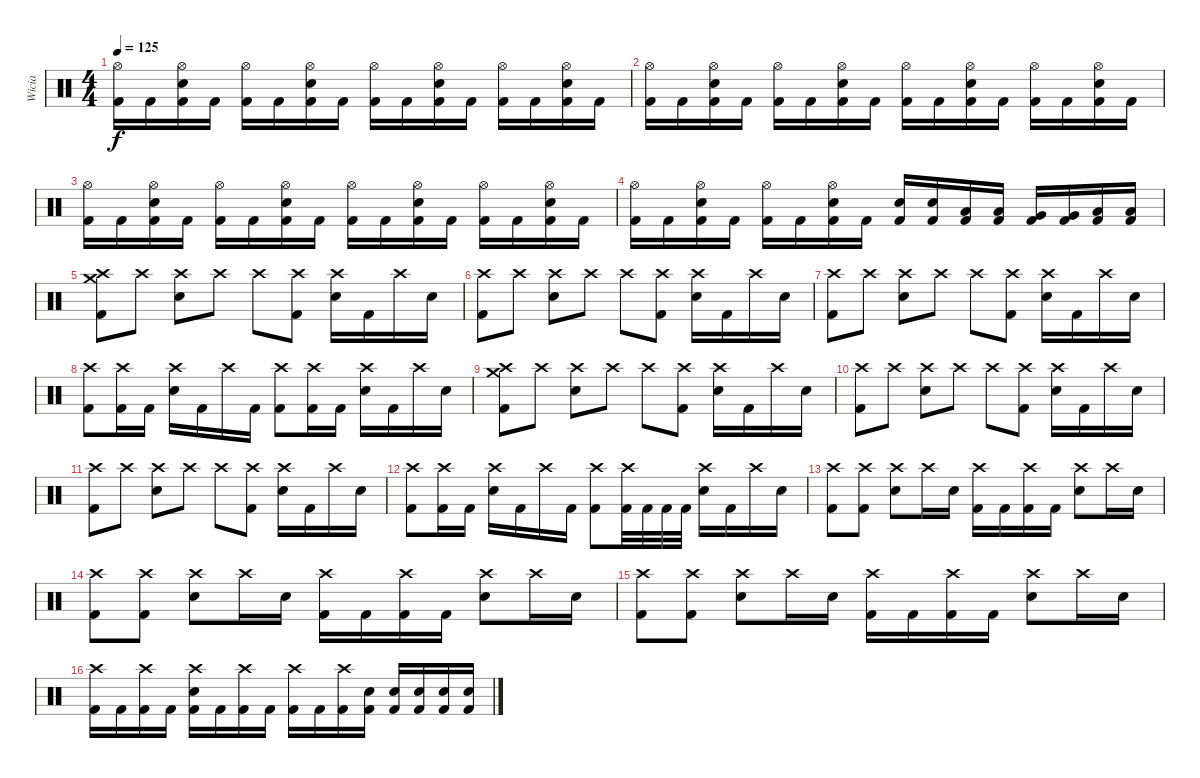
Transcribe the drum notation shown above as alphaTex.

\track ("Wicia" "Wicia") {instrument percussion}
\staff {score}
\articulation defaults
\ts (4 4)
\tempo 125
\clef neutral
\ks c
("Hi-Hat (open)" "Kick (hit) 2").16{dy f} "Kick (hit) 2".16 ("Hi-Hat (open)" "Electric Snare (hit)" "Kick (hit) 2").16 "Kick (hit) 2".16 ("Hi-Hat (open)" "Kick (hit) 2").16 "Kick (hit) 2".16 ("Hi-Hat (open)" "Electric Snare (hit)" "Kick (hit) 2").16 "Kick (hit) 2".16 ("Hi-Hat (open)" "Kick (hit) 2").16 "Kick (hit) 2".16 ("Hi-Hat (open)" "Electric Snare (hit)" "Kick (hit) 2").16 "Kick (hit) 2".16 ("Hi-Hat (open)" "Kick (hit) 2").16 "Kick (hit) 2".16 ("Hi-Hat (open)" "Electric Snare (hit)" "Kick (hit) 2").16 "Kick (hit) 2".16 |
("Hi-Hat (open)" "Kick (hit) 2").16 "Kick (hit) 2".16 ("Hi-Hat (open)" "Electric Snare (hit)" "Kick (hit) 2").16 "Kick (hit) 2".16 ("Hi-Hat (open)" "Kick (hit) 2").16 "Kick (hit) 2".16 ("Hi-Hat (open)" "Electric Snare (hit)" "Kick (hit) 2").16 "Kick (hit) 2".16 ("Hi-Hat (open)" "Kick (hit) 2").16 "Kick (hit) 2".16 ("Hi-Hat (open)" "Electric Snare (hit)" "Kick (hit) 2").16 "Kick (hit) 2".16 ("Hi-Hat (open)" "Kick (hit) 2").16 "Kick (hit) 2".16 ("Hi-Hat (open)" "Electric Snare (hit)" "Kick (hit) 2").16 "Kick (hit) 2".16 |
("Hi-Hat (open)" "Kick (hit) 2").16 "Kick (hit) 2".16 ("Hi-Hat (open)" "Electric Snare (hit)" "Kick (hit) 2").16 "Kick (hit) 2".16 ("Hi-Hat (open)" "Kick (hit) 2").16 "Kick (hit) 2".16 ("Hi-Hat (open)" "Electric Snare (hit)" "Kick (hit) 2").16 "Kick (hit) 2".16 ("Hi-Hat (open)" "Kick (hit) 2").16 "Kick (hit) 2".16 ("Hi-Hat (open)" "Electric Snare (hit)" "Kick (hit) 2").16 "Kick (hit) 2".16 ("Hi-Hat (open)" "Kick (hit) 2").16 "Kick (hit) 2".16 ("Hi-Hat (open)" "Electric Snare (hit)" "Kick (hit) 2").16 "Kick (hit) 2".16 |
("Hi-Hat (open)" "Kick (hit) 2").16 "Kick (hit) 2".16 ("Hi-Hat (open)" "Electric Snare (hit)" "Kick (hit) 2").16 "Kick (hit) 2".16 ("Hi-Hat (open)" "Kick (hit) 2").16 "Kick (hit) 2".16 ("Hi-Hat (open)" "Electric Snare (hit)" "Kick (hit) 2").16 "Kick (hit) 2".16 ("Electric Snare (hit)" "Kick (hit) 2").16 ("Electric Snare (hit)" "Kick (hit) 2").16 ("Low Tom (hit)" "Kick (hit) 2").16 ("Low Tom (hit)" "Kick (hit) 2").16 ("Very Low Tom (hit)" "Kick (hit) 2").16 ("Very Low Tom (hit)" "Kick (hit) 2").16 ("Low Floor Tom (hit)" "Kick (hit) 2").16 ("Low Floor Tom (hit)" "Kick (hit) 2").16 |
("Crash high (hit)" "Crash medium (hit)" "Kick (hit) 2").8 "Crash high (hit)".8 ("Crash high (hit)" "Electric Snare (hit)").8 "Crash high (hit)".8 "Crash high (hit)".8 ("Crash high (hit)" "Kick (hit) 2").8 ("Crash high (hit)" "Electric Snare (hit)").16 "Kick (hit) 2".16 "Crash high (hit)".16 "Electric Snare (hit)".16 |
("Crash high (hit)" "Kick (hit) 2").8 "Crash high (hit)".8 ("Crash high (hit)" "Electric Snare (hit)").8 "Crash high (hit)".8 "Crash high (hit)".8 ("Crash high (hit)" "Kick (hit) 2").8 ("Crash high (hit)" "Electric Snare (hit)").16 "Kick (hit) 2".16 "Crash high (hit)".16 "Electric Snare (hit)".16 |
("Crash high (hit)" "Kick (hit) 2").8 "Crash high (hit)".8 ("Crash high (hit)" "Electric Snare (hit)").8 "Crash high (hit)".8 "Crash high (hit)".8 ("Crash high (hit)" "Kick (hit) 2").8 ("Crash high (hit)" "Electric Snare (hit)").16 "Kick (hit) 2".16 "Crash high (hit)".16 "Electric Snare (hit)".16 |
("Crash high (hit)" "Kick (hit) 2").8 ("Crash high (hit)" "Kick (hit) 2").16 "Kick (hit) 2".16 ("Crash high (hit)" "Electric Snare (hit)").16 "Kick (hit) 2".16 "Crash high (hit)".16 "Kick (hit) 2".16 ("Crash high (hit)" "Kick (hit) 2").8 ("Crash high (hit)" "Kick (hit) 2").16 "Kick (hit) 2".16 ("Crash high (hit)" "Electric Snare (hit)").16 "Kick (hit) 2".16 "Crash high (hit)".16 "Electric Snare (hit)".16 |
("Crash high (hit)" "Crash medium (hit)" "Kick (hit) 2").8 "Crash high (hit)".8 ("Crash high (hit)" "Electric Snare (hit)").8 "Crash high (hit)".8 "Crash high (hit)".8 ("Crash high (hit)" "Kick (hit) 2").8 ("Crash high (hit)" "Electric Snare (hit)").16 "Kick (hit) 2".16 "Crash high (hit)".16 "Electric Snare (hit)".16 |
("Crash high (hit)" "Kick (hit) 2").8 "Crash high (hit)".8 ("Crash high (hit)" "Electric Snare (hit)").8 "Crash high (hit)".8 "Crash high (hit)".8 ("Crash high (hit)" "Kick (hit) 2").8 ("Crash high (hit)" "Electric Snare (hit)").16 "Kick (hit) 2".16 "Crash high (hit)".16 "Electric Snare (hit)".16 |
("Crash high (hit)" "Kick (hit) 2").8 "Crash high (hit)".8 ("Crash high (hit)" "Electric Snare (hit)").8 "Crash high (hit)".8 "Crash high (hit)".8 ("Crash high (hit)" "Kick (hit) 2").8 ("Crash high (hit)" "Electric Snare (hit)").16 "Kick (hit) 2".16 "Crash high (hit)".16 "Electric Snare (hit)".16 |
("Crash high (hit)" "Kick (hit) 2").8 ("Crash high (hit)" "Kick (hit) 2").16 "Kick (hit) 2".16 ("Crash high (hit)" "Electric Snare (hit)").16 "Kick (hit) 2".16 "Crash high (hit)".16 "Kick (hit) 2".16 ("Crash high (hit)" "Kick (hit) 2").8 ("Crash high (hit)" "Kick (hit) 2").32 "Kick (hit) 2".32 "Kick (hit) 2".32 "Kick (hit) 2".32 ("Crash high (hit)" "Electric Snare (hit)").16 "Kick (hit) 2".16 "Crash high (hit)".16 "Electric Snare (hit)".16 |
("Crash high (hit)" "Kick (hit) 2").8 ("Crash high (hit)" "Kick (hit) 2").8 ("Crash high (hit)" "Electric Snare (hit)").8 "Crash high (hit)".16 "Electric Snare (hit)".16 ("Crash high (hit)" "Kick (hit) 2").16 "Kick (hit) 2".16 ("Crash high (hit)" "Kick (hit) 2").16 "Kick (hit) 2".16 ("Crash high (hit)" "Electric Snare (hit)").8 "Crash high (hit)".16 "Electric Snare (hit)".16 |
("Crash high (hit)" "Kick (hit) 2").8 ("Crash high (hit)" "Kick (hit) 2").8 ("Crash high (hit)" "Electric Snare (hit)").8 "Crash high (hit)".16 "Electric Snare (hit)".16 ("Crash high (hit)" "Kick (hit) 2").16 "Kick (hit) 2".16 ("Crash high (hit)" "Kick (hit) 2").16 "Kick (hit) 2".16 ("Crash high (hit)" "Electric Snare (hit)").8 "Crash high (hit)".16 "Electric Snare (hit)".16 |
("Crash high (hit)" "Kick (hit) 2").8 ("Crash high (hit)" "Kick (hit) 2").8 ("Crash high (hit)" "Electric Snare (hit)").8 "Crash high (hit)".16 "Electric Snare (hit)".16 ("Crash high (hit)" "Kick (hit) 2").16 "Kick (hit) 2".16 ("Crash high (hit)" "Kick (hit) 2").16 "Kick (hit) 2".16 ("Crash high (hit)" "Electric Snare (hit)").8 "Crash high (hit)".16 "Electric Snare (hit)".16 |
("Crash high (hit)" "Kick (hit) 2").16 "Kick (hit) 2".16 ("Crash high (hit)" "Kick (hit) 2").16 "Kick (hit) 2".16 ("Crash high (hit)" "Electric Snare (hit)" "Kick (hit) 2").16 "Kick (hit) 2".16 ("Crash high (hit)" "Kick (hit) 2").16 "Kick (hit) 2".16 ("Crash high (hit)" "Kick (hit) 2").16 "Kick (hit) 2".16 ("Crash high (hit)" "Kick (hit) 2").16 ("Electric Snare (hit)" "Kick (hit) 2").16 ("Electric Snare (hit)" "Kick (hit) 2").16 ("Electric Snare (hit)" "Kick (hit) 2").16 ("Electric Snare (hit)" "Kick (hit) 2").16 ("Electric Snare (hit)" "Kick (hit) 2").16
